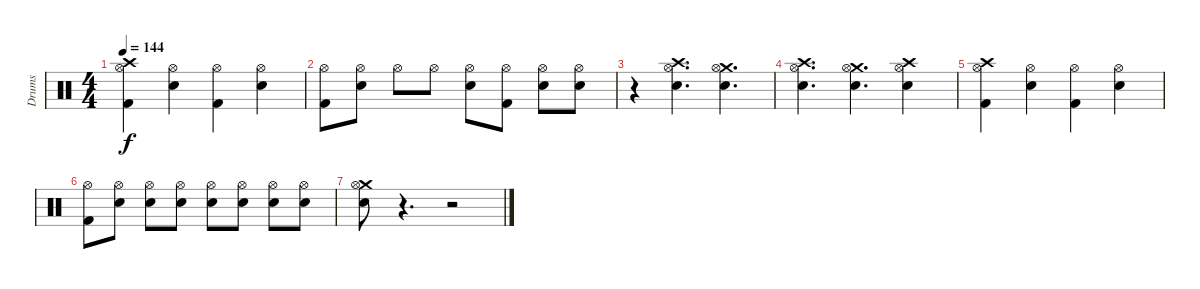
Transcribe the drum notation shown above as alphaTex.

\track ("Drums" "Drums") {instrument percussion}
\staff {score}
\articulation defaults
\ts (4 4)
\tempo 144
\clef neutral
\ks c
("Crash high (hit)" "Hi-Hat (open)" "Kick (hit) 2").4{dy f} ("Hi-Hat (open)" "Electric Snare (hit)").4 ("Hi-Hat (open)" "Kick (hit) 2").4 ("Hi-Hat (open)" "Electric Snare (hit)").4 |
("Hi-Hat (open)" "Kick (hit) 2").8 ("Hi-Hat (open)" "Electric Snare (hit)").8 "Hi-Hat (open)".8 "Hi-Hat (open)".8 ("Hi-Hat (open)" "Electric Snare (hit)").8 ("Hi-Hat (open)" "Kick (hit) 2").8 ("Hi-Hat (open)" "Electric Snare (hit)").8 ("Hi-Hat (open)" "Electric Snare (hit)").8 |
r.4 ("Crash high (hit)" "Hi-Hat (open)" "Electric Snare (hit)").4{d} ("Crash medium (hit)" "Hi-Hat (open)" "Electric Snare (hit)").4{d} |
("Crash high (hit)" "Hi-Hat (open)" "Electric Snare (hit)").4{d} ("Crash medium (hit)" "Hi-Hat (open)" "Electric Snare (hit)").4{d} ("Crash high (hit)" "Hi-Hat (open)" "Electric Snare (hit)").4 |
("Crash high (hit)" "Hi-Hat (open)" "Kick (hit) 2").4 ("Hi-Hat (open)" "Electric Snare (hit)").4 ("Hi-Hat (open)" "Kick (hit) 2").4 ("Hi-Hat (open)" "Electric Snare (hit)").4 |
("Hi-Hat (open)" "Kick (hit) 2").8 ("Hi-Hat (open)" "Electric Snare (hit)").8 ("Hi-Hat (open)" "Electric Snare (hit)").8 ("Hi-Hat (open)" "Electric Snare (hit)").8 ("Hi-Hat (open)" "Electric Snare (hit)").8 ("Hi-Hat (open)" "Electric Snare (hit)").8 ("Hi-Hat (open)" "Electric Snare (hit)").8 ("Hi-Hat (open)" "Electric Snare (hit)").8 |
("Crash medium (hit)" "Hi-Hat (open)" "Electric Snare (hit)").8 r.4{d} r.2
